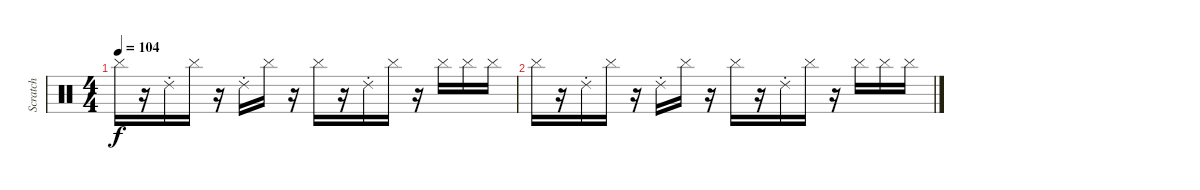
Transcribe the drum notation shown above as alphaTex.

\track ("Scratch" "Scratch") {instrument percussion}
\staff {score}
\articulation defaults
\ts (4 4)
\tempo 104
\clef neutral
\ks c "Cymbal (hit)".16{dy f}
r.16 "Ride (choke) 2".16 "Cymbal (hit)".16 r.16 "Ride (choke) 2".16 "Cymbal (hit)".16 r.16 "Cymbal (hit)".16 r.16 "Ride (choke) 2".16 "Cymbal (hit)".16 r.16 "Cymbal (hit)".16 "Cymbal (hit)".16 "Cymbal (hit)".16 |
"Cymbal (hit)".16 r.16 "Ride (choke) 2".16 "Cymbal (hit)".16 r.16 "Ride (choke) 2".16 "Cymbal (hit)".16 r.16 "Cymbal (hit)".16 r.16 "Ride (choke) 2".16 "Cymbal (hit)".16 r.16 "Cymbal (hit)".16 "Cymbal (hit)".16 "Cymbal (hit)".16
